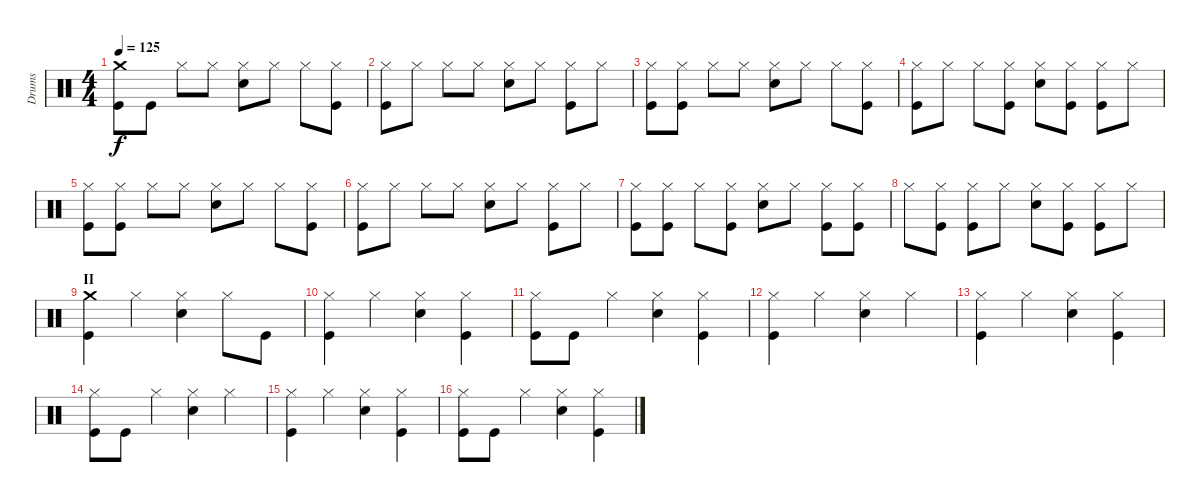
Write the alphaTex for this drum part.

\track ("Drums" "Drums") {instrument percussion}
\staff {score}
\articulation defaults
\ts (4 4)
\tempo 125
\clef neutral
\ks c
("Kick (hit)" "Crash medium (hit)").8{dy f} "Kick (hit)".8 "Hi-Hat (closed)".8 "Hi-Hat (closed)".8 ("Electric Snare (hit)" "Hi-Hat (closed)").8 "Hi-Hat (closed)".8 "Hi-Hat (closed)".8 ("Kick (hit)" "Hi-Hat (closed)").8 |
("Kick (hit)" "Hi-Hat (closed)").8 "Hi-Hat (closed)".8 "Hi-Hat (closed)".8 "Hi-Hat (closed)".8 ("Electric Snare (hit)" "Hi-Hat (closed)").8 "Hi-Hat (closed)".8 ("Kick (hit)" "Hi-Hat (closed)").8 "Hi-Hat (closed)".8 |
("Kick (hit)" "Hi-Hat (closed)").8 ("Kick (hit)" "Hi-Hat (closed)").8 "Hi-Hat (closed)".8 "Hi-Hat (closed)".8 ("Electric Snare (hit)" "Hi-Hat (closed)").8 "Hi-Hat (closed)".8 "Hi-Hat (closed)".8 ("Kick (hit)" "Hi-Hat (closed)").8 |
("Kick (hit)" "Hi-Hat (closed)").8 "Hi-Hat (closed)".8 "Hi-Hat (closed)".8 ("Kick (hit)" "Hi-Hat (closed)").8 ("Electric Snare (hit)" "Hi-Hat (closed)").8 ("Kick (hit)" "Hi-Hat (closed)").8 ("Kick (hit)" "Hi-Hat (closed)").8 "Hi-Hat (closed)".8 |
("Kick (hit)" "Hi-Hat (closed)").8 ("Kick (hit)" "Hi-Hat (closed)").8 "Hi-Hat (closed)".8 "Hi-Hat (closed)".8 ("Electric Snare (hit)" "Hi-Hat (closed)").8 "Hi-Hat (closed)".8 "Hi-Hat (closed)".8 ("Kick (hit)" "Hi-Hat (closed)").8 |
("Kick (hit)" "Hi-Hat (closed)").8 "Hi-Hat (closed)".8 "Hi-Hat (closed)".8 "Hi-Hat (closed)".8 ("Electric Snare (hit)" "Hi-Hat (closed)").8 "Hi-Hat (closed)".8 ("Kick (hit)" "Hi-Hat (closed)").8 "Hi-Hat (closed)".8 |
("Kick (hit)" "Hi-Hat (closed)").8 ("Kick (hit)" "Hi-Hat (closed)").8 "Hi-Hat (closed)".8 ("Kick (hit)" "Hi-Hat (closed)").8 ("Electric Snare (hit)" "Hi-Hat (closed)").8 "Hi-Hat (closed)".8 ("Kick (hit)" "Hi-Hat (closed)").8 ("Kick (hit)" "Hi-Hat (closed)").8 |
"Hi-Hat (closed)".8 ("Kick (hit)" "Hi-Hat (closed)").8 ("Kick (hit)" "Hi-Hat (closed)").8 "Hi-Hat (closed)".8 ("Electric Snare (hit)" "Hi-Hat (closed)").8 ("Kick (hit)" "Hi-Hat (closed)").8 ("Kick (hit)" "Hi-Hat (closed)").8 "Hi-Hat (closed)".8 |
\section ("" "II")
("Kick (hit)" "Crash medium (hit)").4 "Hi-Hat (closed)".4 ("Electric Snare (hit)" "Hi-Hat (closed)").4 "Hi-Hat (closed)".8 "Kick (hit)".8 |
("Kick (hit)" "Hi-Hat (closed)").4 "Hi-Hat (closed)".4 ("Electric Snare (hit)" "Hi-Hat (closed)").4 ("Kick (hit)" "Hi-Hat (closed)").4 |
("Kick (hit)" "Hi-Hat (closed)").8 "Kick (hit)".8 "Hi-Hat (closed)".4 ("Electric Snare (hit)" "Hi-Hat (closed)").4 ("Kick (hit)" "Hi-Hat (closed)").4 |
("Kick (hit)" "Hi-Hat (closed)").4 "Hi-Hat (closed)".4 ("Electric Snare (hit)" "Hi-Hat (closed)").4 "Hi-Hat (closed)".4 |
("Kick (hit)" "Hi-Hat (closed)").4 "Hi-Hat (closed)".4 ("Electric Snare (hit)" "Hi-Hat (closed)").4 ("Kick (hit)" "Hi-Hat (closed)").4 |
("Kick (hit)" "Hi-Hat (closed)").8 "Kick (hit)".8 "Hi-Hat (closed)".4 ("Electric Snare (hit)" "Hi-Hat (closed)").4 "Hi-Hat (closed)".4 |
("Kick (hit)" "Hi-Hat (closed)").4 "Hi-Hat (closed)".4 ("Electric Snare (hit)" "Hi-Hat (closed)").4 ("Kick (hit)" "Hi-Hat (closed)").4 |
("Kick (hit)" "Hi-Hat (closed)").8 "Kick (hit)".8 "Hi-Hat (closed)".4 ("Electric Snare (hit)" "Hi-Hat (closed)").4 ("Kick (hit)" "Hi-Hat (closed)").4
